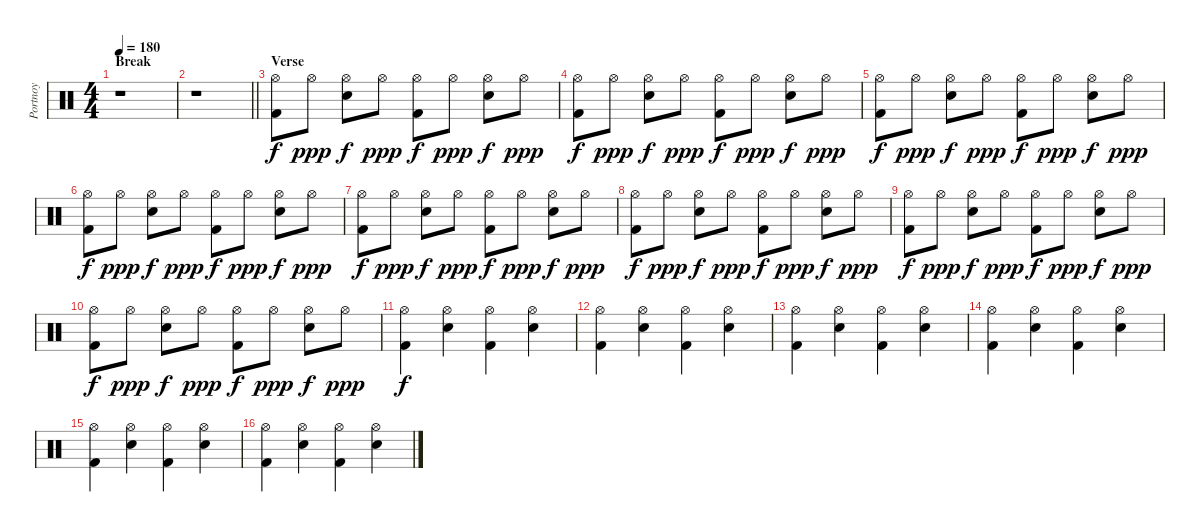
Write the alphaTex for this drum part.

\track ("Portnoy" "Portnoy") {instrument percussion}
\staff {score}
\articulation defaults
\ts (4 4)
\section ("" "Break")
\tempo 180
\clef neutral
\ks c
r.1{dy f} |
\barLineRight lightlight
r.1 |
\section ("" "Verse")
("Hi-Hat (open)" "Kick (hit) 2").8 "Hi-Hat (open)".8{dy ppp} ("Hi-Hat (open)" "Electric Snare (hit)").8{dy f} "Hi-Hat (open)".8{dy ppp} ("Hi-Hat (open)" "Kick (hit) 2").8{dy f} "Hi-Hat (open)".8{dy ppp} ("Hi-Hat (open)" "Electric Snare (hit)").8{dy f} "Hi-Hat (open)".8{dy ppp} |
("Hi-Hat (open)" "Kick (hit) 2").8{dy f} "Hi-Hat (open)".8{dy ppp} ("Hi-Hat (open)" "Electric Snare (hit)").8{dy f} "Hi-Hat (open)".8{dy ppp} ("Hi-Hat (open)" "Kick (hit) 2").8{dy f} "Hi-Hat (open)".8{dy ppp} ("Hi-Hat (open)" "Electric Snare (hit)").8{dy f} "Hi-Hat (open)".8{dy ppp} |
("Hi-Hat (open)" "Kick (hit) 2").8{dy f} "Hi-Hat (open)".8{dy ppp} ("Hi-Hat (open)" "Electric Snare (hit)").8{dy f} "Hi-Hat (open)".8{dy ppp} ("Hi-Hat (open)" "Kick (hit) 2").8{dy f} "Hi-Hat (open)".8{dy ppp} ("Hi-Hat (open)" "Electric Snare (hit)").8{dy f} "Hi-Hat (open)".8{dy ppp} |
("Hi-Hat (open)" "Kick (hit) 2").8{dy f} "Hi-Hat (open)".8{dy ppp} ("Hi-Hat (open)" "Electric Snare (hit)").8{dy f} "Hi-Hat (open)".8{dy ppp} ("Hi-Hat (open)" "Kick (hit) 2").8{dy f} "Hi-Hat (open)".8{dy ppp} ("Hi-Hat (open)" "Electric Snare (hit)").8{dy f} "Hi-Hat (open)".8{dy ppp} |
("Hi-Hat (open)" "Kick (hit) 2").8{dy f} "Hi-Hat (open)".8{dy ppp} ("Hi-Hat (open)" "Electric Snare (hit)").8{dy f} "Hi-Hat (open)".8{dy ppp} ("Hi-Hat (open)" "Kick (hit) 2").8{dy f} "Hi-Hat (open)".8{dy ppp} ("Hi-Hat (open)" "Electric Snare (hit)").8{dy f} "Hi-Hat (open)".8{dy ppp} |
("Hi-Hat (open)" "Kick (hit) 2").8{dy f} "Hi-Hat (open)".8{dy ppp} ("Hi-Hat (open)" "Electric Snare (hit)").8{dy f} "Hi-Hat (open)".8{dy ppp} ("Hi-Hat (open)" "Kick (hit) 2").8{dy f} "Hi-Hat (open)".8{dy ppp} ("Hi-Hat (open)" "Electric Snare (hit)").8{dy f} "Hi-Hat (open)".8{dy ppp} |
("Hi-Hat (open)" "Kick (hit) 2").8{dy f} "Hi-Hat (open)".8{dy ppp} ("Hi-Hat (open)" "Electric Snare (hit)").8{dy f} "Hi-Hat (open)".8{dy ppp} ("Hi-Hat (open)" "Kick (hit) 2").8{dy f} "Hi-Hat (open)".8{dy ppp} ("Hi-Hat (open)" "Electric Snare (hit)").8{dy f} "Hi-Hat (open)".8{dy ppp} |
("Hi-Hat (open)" "Kick (hit) 2").8{dy f} "Hi-Hat (open)".8{dy ppp} ("Hi-Hat (open)" "Electric Snare (hit)").8{dy f} "Hi-Hat (open)".8{dy ppp} ("Hi-Hat (open)" "Kick (hit) 2").8{dy f} "Hi-Hat (open)".8{dy ppp} ("Hi-Hat (open)" "Electric Snare (hit)").8{dy f} "Hi-Hat (open)".8{dy ppp} |
("Hi-Hat (open)" "Kick (hit) 2").4{dy f} ("Hi-Hat (open)" "Electric Snare (hit)").4 ("Hi-Hat (open)" "Kick (hit) 2").4 ("Hi-Hat (open)" "Electric Snare (hit)").4 |
("Hi-Hat (open)" "Kick (hit) 2").4 ("Hi-Hat (open)" "Electric Snare (hit)").4 ("Hi-Hat (open)" "Kick (hit) 2").4 ("Hi-Hat (open)" "Electric Snare (hit)").4 |
("Hi-Hat (open)" "Kick (hit) 2").4 ("Hi-Hat (open)" "Electric Snare (hit)").4 ("Hi-Hat (open)" "Kick (hit) 2").4 ("Hi-Hat (open)" "Electric Snare (hit)").4 |
("Hi-Hat (open)" "Kick (hit) 2").4 ("Hi-Hat (open)" "Electric Snare (hit)").4 ("Hi-Hat (open)" "Kick (hit) 2").4 ("Hi-Hat (open)" "Electric Snare (hit)").4 |
("Hi-Hat (open)" "Kick (hit) 2").4 ("Hi-Hat (open)" "Electric Snare (hit)").4 ("Hi-Hat (open)" "Kick (hit) 2").4 ("Hi-Hat (open)" "Electric Snare (hit)").4 |
("Hi-Hat (open)" "Kick (hit) 2").4 ("Hi-Hat (open)" "Electric Snare (hit)").4 ("Hi-Hat (open)" "Kick (hit) 2").4 ("Hi-Hat (open)" "Electric Snare (hit)").4
